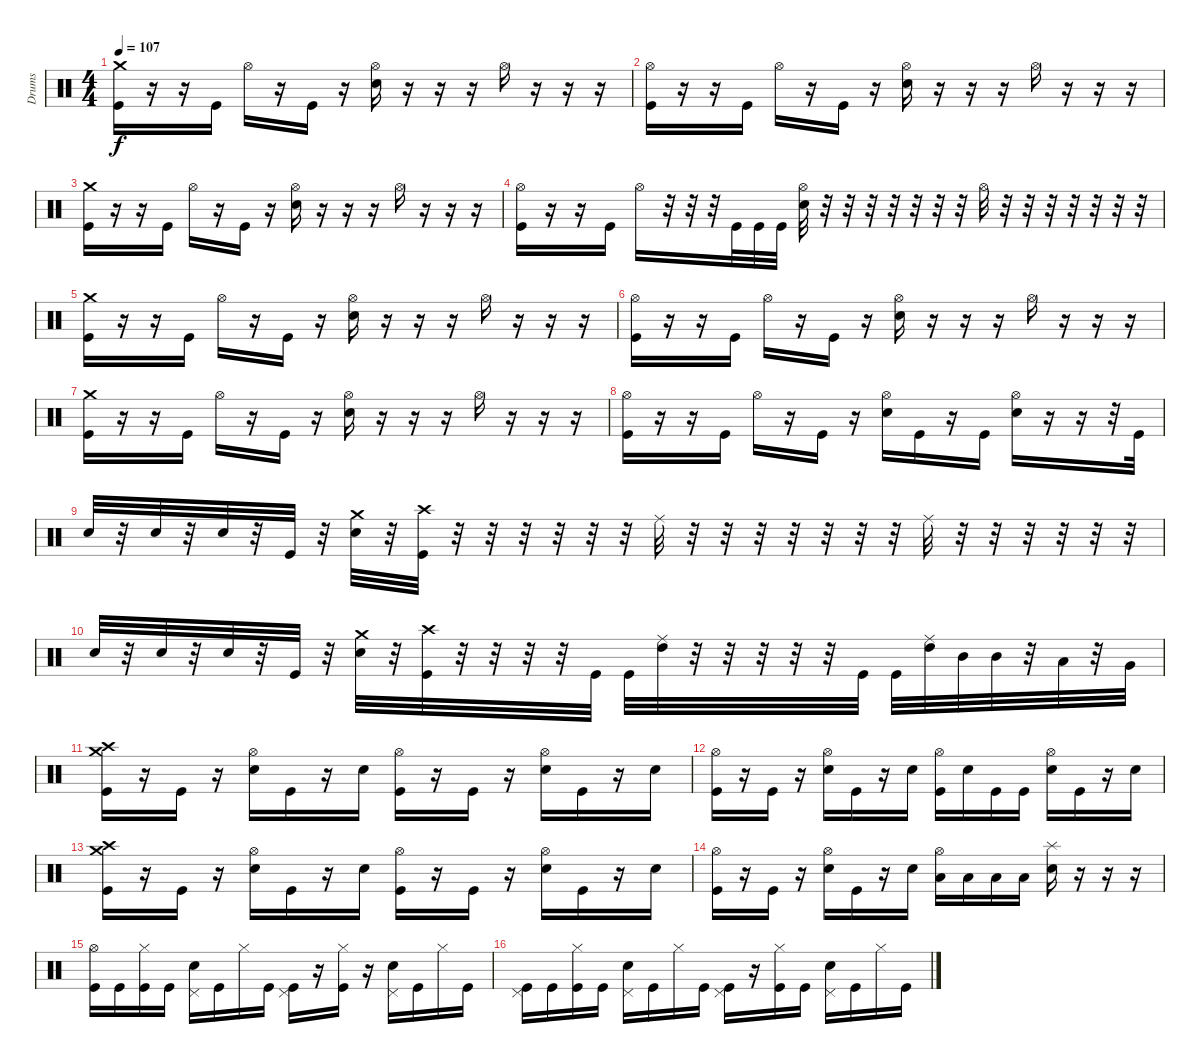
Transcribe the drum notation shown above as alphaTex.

\track ("Drums" "Drums") {instrument percussion}
\staff {score}
\articulation defaults
\ts (4 4)
\tempo 107
\clef neutral
\ks c
("Crash medium (hit)" "Kick (hit)").16{dy f} r.16 r.16 "Kick (hit)".16 "Hi-Hat (open)".16 r.16 "Kick (hit)".16 r.16 ("Hi-Hat (open)" "Electric Snare (hit)").16 r.16 r.16 r.16 "Hi-Hat (open)".16 r.16 r.16 r.16 |
("Hi-Hat (open)" "Kick (hit)").16 r.16 r.16 "Kick (hit)".16 "Hi-Hat (open)".16 r.16 "Kick (hit)".16 r.16 ("Hi-Hat (open)" "Electric Snare (hit)").16 r.16 r.16 r.16 "Hi-Hat (open)".16 r.16 r.16 r.16 |
("Crash medium (hit)" "Kick (hit)").16 r.16 r.16 "Kick (hit)".16 "Hi-Hat (open)".16 r.16 "Kick (hit)".16 r.16 ("Hi-Hat (open)" "Electric Snare (hit)").16 r.16 r.16 r.16 "Hi-Hat (open)".16 r.16 r.16 r.16 |
("Hi-Hat (open)" "Kick (hit)").16 r.16 r.16 "Kick (hit)".16 "Hi-Hat (open)".16 r.32 r.32 r.32 "Kick (hit)".32 "Kick (hit)".32 "Kick (hit)".32 ("Hi-Hat (open)" "Electric Snare (hit)").32 r.32 r.32 r.32 r.32 r.32 r.32 r.32 "Hi-Hat (open)".32 r.32 r.32 r.32 r.32 r.32 r.32 r.32 |
("Crash medium (hit)" "Kick (hit)").16 r.16 r.16 "Kick (hit)".16 "Hi-Hat (open)".16 r.16 "Kick (hit)".16 r.16 ("Hi-Hat (open)" "Electric Snare (hit)").16 r.16 r.16 r.16 "Hi-Hat (open)".16 r.16 r.16 r.16 |
("Hi-Hat (open)" "Kick (hit)").16 r.16 r.16 "Kick (hit)".16 "Hi-Hat (open)".16 r.16 "Kick (hit)".16 r.16 ("Hi-Hat (open)" "Electric Snare (hit)").16 r.16 r.16 r.16 "Hi-Hat (open)".16 r.16 r.16 r.16 |
("Crash medium (hit)" "Kick (hit)").16 r.16 r.16 "Kick (hit)".16 "Hi-Hat (open)".16 r.16 "Kick (hit)".16 r.16 ("Hi-Hat (open)" "Electric Snare (hit)").16 r.16 r.16 r.16 "Hi-Hat (open)".16 r.16 r.16 r.16 |
("Hi-Hat (open)" "Kick (hit)").16 r.16 r.16 "Kick (hit)".16 "Hi-Hat (open)".16 r.16 "Kick (hit)".16 r.16 ("Hi-Hat (open)" "Electric Snare (hit)").16 "Kick (hit)".16 r.16 "Kick (hit)".16 ("Hi-Hat (open)" "Electric Snare (hit)").16 r.16 r.16 r.32 "Kick (hit)".32 |
"Electric Snare (hit)".32 r.32 "Electric Snare (hit)".32 r.32 "Electric Snare (hit)".32 r.32 "Kick (hit)".32 r.32 ("Crash medium (hit)" "Electric Snare (hit)").32 r.32 ("Crash high (hit)" "Kick (hit)").32 r.32 r.32 r.32 r.32 r.32 r.32 "Ride (middle)".32 r.32 r.32 r.32 r.32 r.32 r.32 r.32 "Ride (middle)".32 r.32 r.32 r.32 r.32 r.32 r.32 |
"Electric Snare (hit)".32 r.32 "Electric Snare (hit)".32 r.32 "Electric Snare (hit)".32 r.32 "Kick (hit)".32 r.32 ("Crash medium (hit)" "Electric Snare (hit)").32 r.32 ("Crash high (hit)" "Kick (hit)").32 r.32 r.32 r.32 r.32 "Kick (hit)".32 "Kick (hit)".32 ("Ride (middle)" "High Tom (hit)").32 r.32 r.32 r.32 r.32 r.32 "Kick (hit)".32 "Kick (hit)".32 ("Ride (middle)" "High Tom (hit)").32 "Mid Tom (hit)".32 "Mid Tom (hit)".32 r.32 "Low Tom (hit)".32 r.32 "Very Low Tom (hit)".32 |
("Crash high (hit)" "Kick (hit)" "Crash medium (hit)").16 r.16 "Kick (hit)".16 r.16 ("Hi-Hat (open)" "Electric Snare (hit)").16 "Kick (hit)".16 r.16 "Electric Snare (hit)".16 ("Hi-Hat (open)" "Kick (hit)").16 r.16 "Kick (hit)".16 r.16 ("Hi-Hat (open)" "Electric Snare (hit)").16 "Kick (hit)".16 r.16 "Electric Snare (hit)".16 |
("Hi-Hat (open)" "Kick (hit)").16 r.16 "Kick (hit)".16 r.16 ("Hi-Hat (open)" "Electric Snare (hit)").16 "Kick (hit)".16 r.16 "Electric Snare (hit)".16 ("Hi-Hat (open)" "Kick (hit)").16 "Electric Snare (hit)".16 "Kick (hit)".16 "Kick (hit)".16 ("Hi-Hat (open)" "Electric Snare (hit)").16 "Kick (hit)".16 r.16 "Electric Snare (hit)".16 |
("Crash high (hit)" "Kick (hit)" "Crash medium (hit)").16 r.16 "Kick (hit)".16 r.16 ("Hi-Hat (open)" "Electric Snare (hit)").16 "Kick (hit)".16 r.16 "Electric Snare (hit)".16 ("Hi-Hat (open)" "Kick (hit)").16 r.16 "Kick (hit)".16 r.16 ("Hi-Hat (open)" "Electric Snare (hit)").16 "Kick (hit)".16 r.16 "Electric Snare (hit)".16 |
("Hi-Hat (open)" "Kick (hit)").16 r.16 "Kick (hit)".16 r.16 ("Hi-Hat (open)" "Electric Snare (hit)").16 "Kick (hit)".16 r.16 "Electric Snare (hit)".16 ("Hi-Hat (open)" "Low Floor Tom (hit)").16 "Low Floor Tom (hit)".16 "Low Floor Tom (hit)".16 "Low Floor Tom (hit)".16 ("Splash (hit)" "Electric Snare (hit)").16 r.16 r.16 r.16 |
("Hi-Hat (open)" "Kick (hit)").16 "Kick (hit)".16 ("Hi-Hat (closed)" "Kick (hit)").16 "Kick (hit)".16 ("Pedal Hi-Hat (hit)" "Electric Snare (hit)").16 "Kick (hit)".16 "Hi-Hat (closed)".16 "Kick (hit)".16 ("Pedal Hi-Hat (hit)" "Kick (hit)").16 r.16 ("Hi-Hat (closed)" "Kick (hit)").16 r.16 ("Pedal Hi-Hat (hit)" "Electric Snare (hit)").16 "Kick (hit)".16 "Hi-Hat (closed)".16 "Kick (hit)".16 |
("Pedal Hi-Hat (hit)" "Kick (hit)").16 "Kick (hit)".16 ("Hi-Hat (closed)" "Kick (hit)").16 "Kick (hit)".16 ("Pedal Hi-Hat (hit)" "Electric Snare (hit)").16 "Kick (hit)".16 "Hi-Hat (closed)".16 "Kick (hit)".16 ("Pedal Hi-Hat (hit)" "Kick (hit)").16 r.16 ("Hi-Hat (closed)" "Kick (hit)").16 "Kick (hit)".16 ("Pedal Hi-Hat (hit)" "Electric Snare (hit)").16 "Kick (hit)".16 "Hi-Hat (closed)".16 "Kick (hit)".16
